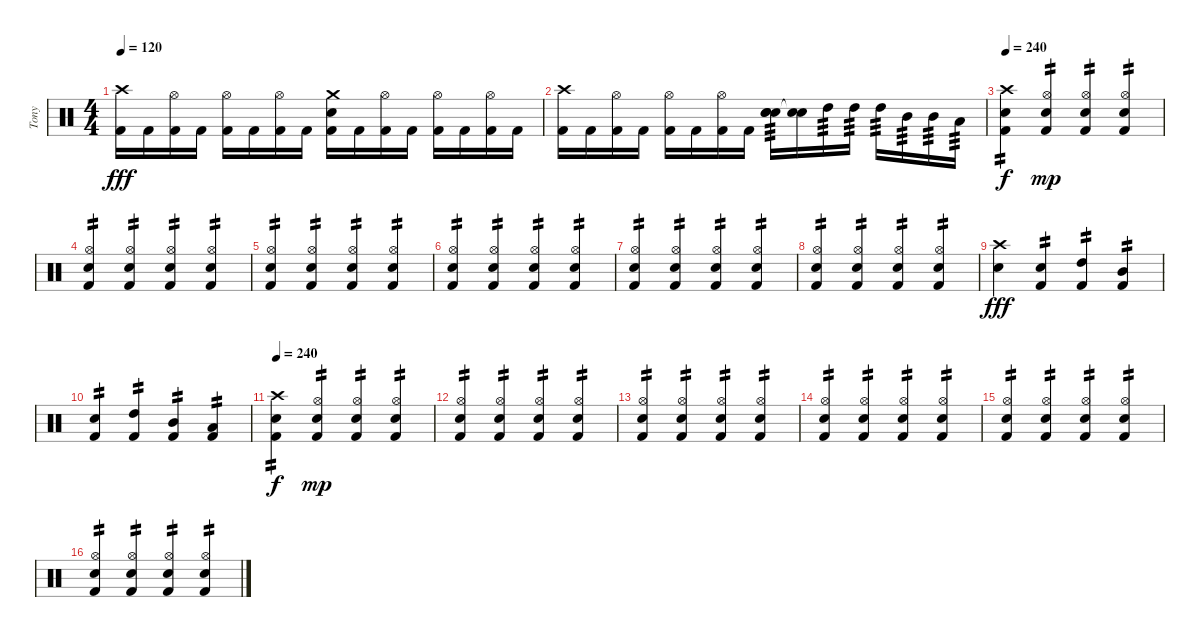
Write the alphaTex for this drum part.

\track ("Tony" "Tony") {instrument percussion}
\staff {score}
\articulation defaults
\ts (4 4)
\tempo 120
\clef neutral
\ks c
("Crash high (hit)" "Kick (hit) 2").16{dy fff} "Kick (hit) 2".16 ("Hi-Hat (open)" "Kick (hit) 2").16 "Kick (hit) 2".16 ("Hi-Hat (open)" "Kick (hit) 2").16 "Kick (hit) 2".16 ("Hi-Hat (open)" "Kick (hit) 2").16 "Kick (hit) 2".16 ("Crash medium (hit)" "Snare (hit) 2" "Kick (hit) 2").16 "Kick (hit) 2".16 ("Hi-Hat (open)" "Kick (hit) 2").16 "Kick (hit) 2".16 ("Hi-Hat (open)" "Kick (hit) 2").16 "Kick (hit) 2".16 ("Hi-Hat (open)" "Kick (hit) 2").16 "Kick (hit) 2".16 |
("Crash high (hit)" "Kick (hit) 2").16 "Kick (hit) 2".16 ("Hi-Hat (open)" "Kick (hit) 2").16 "Kick (hit) 2".16 ("Hi-Hat (open)" "Kick (hit) 2").16 "Kick (hit) 2".16 ("Hi-Hat (open)" "Kick (hit) 2").16 "Kick (hit) 2".16 ("Snare (hit)" "Snare (hit) 2" "Snare (hit)").16{tp 3} ("Snare (hit)"{t} "Snare (hit)").16 "High Tom (hit)".16{tp 3} "High Tom (hit)".16{tp 3} "High Tom (hit)".16{tp 3} "Mid Tom (hit)".16{tp 3} "Mid Tom (hit)".16{tp 3} "Low Tom (hit)".16{tp 3} |
\tempo 240
("Crash high (hit)" "Snare (hit) 2" "Kick (hit) 2").4{tp 2 dy f} ("Hi-Hat (open)" "Snare (hit) 2" "Kick (hit) 2").4{tp 2 dy mp} ("Hi-Hat (open)" "Snare (hit) 2" "Kick (hit) 2").4{tp 2} ("Hi-Hat (open)" "Snare (hit) 2" "Kick (hit) 2").4{tp 2} |
("Hi-Hat (open)" "Snare (hit) 2" "Kick (hit) 2").4{tp 2} ("Hi-Hat (open)" "Snare (hit) 2" "Kick (hit) 2").4{tp 2} ("Hi-Hat (open)" "Snare (hit) 2" "Kick (hit) 2").4{tp 2} ("Hi-Hat (open)" "Snare (hit) 2" "Kick (hit) 2").4{tp 2} |
("Hi-Hat (open)" "Snare (hit) 2" "Kick (hit) 2").4{tp 2} ("Hi-Hat (open)" "Snare (hit) 2" "Kick (hit) 2").4{tp 2} ("Hi-Hat (open)" "Snare (hit) 2" "Kick (hit) 2").4{tp 2} ("Hi-Hat (open)" "Snare (hit) 2" "Kick (hit) 2").4{tp 2} |
("Hi-Hat (open)" "Snare (hit) 2" "Kick (hit) 2").4{tp 2} ("Hi-Hat (open)" "Snare (hit) 2" "Kick (hit) 2").4{tp 2} ("Hi-Hat (open)" "Snare (hit) 2" "Kick (hit) 2").4{tp 2} ("Hi-Hat (open)" "Snare (hit) 2" "Kick (hit) 2").4{tp 2} |
("Hi-Hat (open)" "Snare (hit) 2" "Kick (hit) 2").4{tp 2} ("Hi-Hat (open)" "Snare (hit) 2" "Kick (hit) 2").4{tp 2} ("Hi-Hat (open)" "Snare (hit) 2" "Kick (hit) 2").4{tp 2} ("Hi-Hat (open)" "Snare (hit) 2" "Kick (hit) 2").4{tp 2} |
("Hi-Hat (open)" "Snare (hit) 2" "Kick (hit) 2").4{tp 2} ("Hi-Hat (open)" "Snare (hit) 2" "Kick (hit) 2").4{tp 2} ("Hi-Hat (open)" "Snare (hit) 2" "Kick (hit) 2").4{tp 2} ("Hi-Hat (open)" "Snare (hit) 2" "Kick (hit) 2").4{tp 2} |
("Crash high (hit)" "Snare (hit) 2").4{dy fff} ("Snare (hit) 2" "Kick (hit) 2").4{tp 2} ("High Tom (hit)" "Kick (hit) 2").4{tp 2} ("Mid Tom (hit)" "Kick (hit) 2").4{tp 2} |
("Snare (hit) 2" "Kick (hit) 2").4{tp 2} ("High Tom (hit)" "Kick (hit) 2").4{tp 2} ("Mid Tom (hit)" "Kick (hit) 2").4{tp 2} ("Low Tom (hit)" "Kick (hit) 2").4{tp 2} |
\tempo 240
("Crash high (hit)" "Snare (hit) 2" "Kick (hit) 2").4{tp 2 dy f} ("Hi-Hat (open)" "Snare (hit) 2" "Kick (hit) 2").4{tp 2 dy mp} ("Hi-Hat (open)" "Snare (hit) 2" "Kick (hit) 2").4{tp 2} ("Hi-Hat (open)" "Snare (hit) 2" "Kick (hit) 2").4{tp 2} |
("Hi-Hat (open)" "Snare (hit) 2" "Kick (hit) 2").4{tp 2} ("Hi-Hat (open)" "Snare (hit) 2" "Kick (hit) 2").4{tp 2} ("Hi-Hat (open)" "Snare (hit) 2" "Kick (hit) 2").4{tp 2} ("Hi-Hat (open)" "Snare (hit) 2" "Kick (hit) 2").4{tp 2} |
("Hi-Hat (open)" "Snare (hit) 2" "Kick (hit) 2").4{tp 2} ("Hi-Hat (open)" "Snare (hit) 2" "Kick (hit) 2").4{tp 2} ("Hi-Hat (open)" "Snare (hit) 2" "Kick (hit) 2").4{tp 2} ("Hi-Hat (open)" "Snare (hit) 2" "Kick (hit) 2").4{tp 2} |
("Hi-Hat (open)" "Snare (hit) 2" "Kick (hit) 2").4{tp 2} ("Hi-Hat (open)" "Snare (hit) 2" "Kick (hit) 2").4{tp 2} ("Hi-Hat (open)" "Snare (hit) 2" "Kick (hit) 2").4{tp 2} ("Hi-Hat (open)" "Snare (hit) 2" "Kick (hit) 2").4{tp 2} |
("Hi-Hat (open)" "Snare (hit) 2" "Kick (hit) 2").4{tp 2} ("Hi-Hat (open)" "Snare (hit) 2" "Kick (hit) 2").4{tp 2} ("Hi-Hat (open)" "Snare (hit) 2" "Kick (hit) 2").4{tp 2} ("Hi-Hat (open)" "Snare (hit) 2" "Kick (hit) 2").4{tp 2} |
("Hi-Hat (open)" "Snare (hit) 2" "Kick (hit) 2").4{tp 2} ("Hi-Hat (open)" "Snare (hit) 2" "Kick (hit) 2").4{tp 2} ("Hi-Hat (open)" "Snare (hit) 2" "Kick (hit) 2").4{tp 2} ("Hi-Hat (open)" "Snare (hit) 2" "Kick (hit) 2").4{tp 2}
